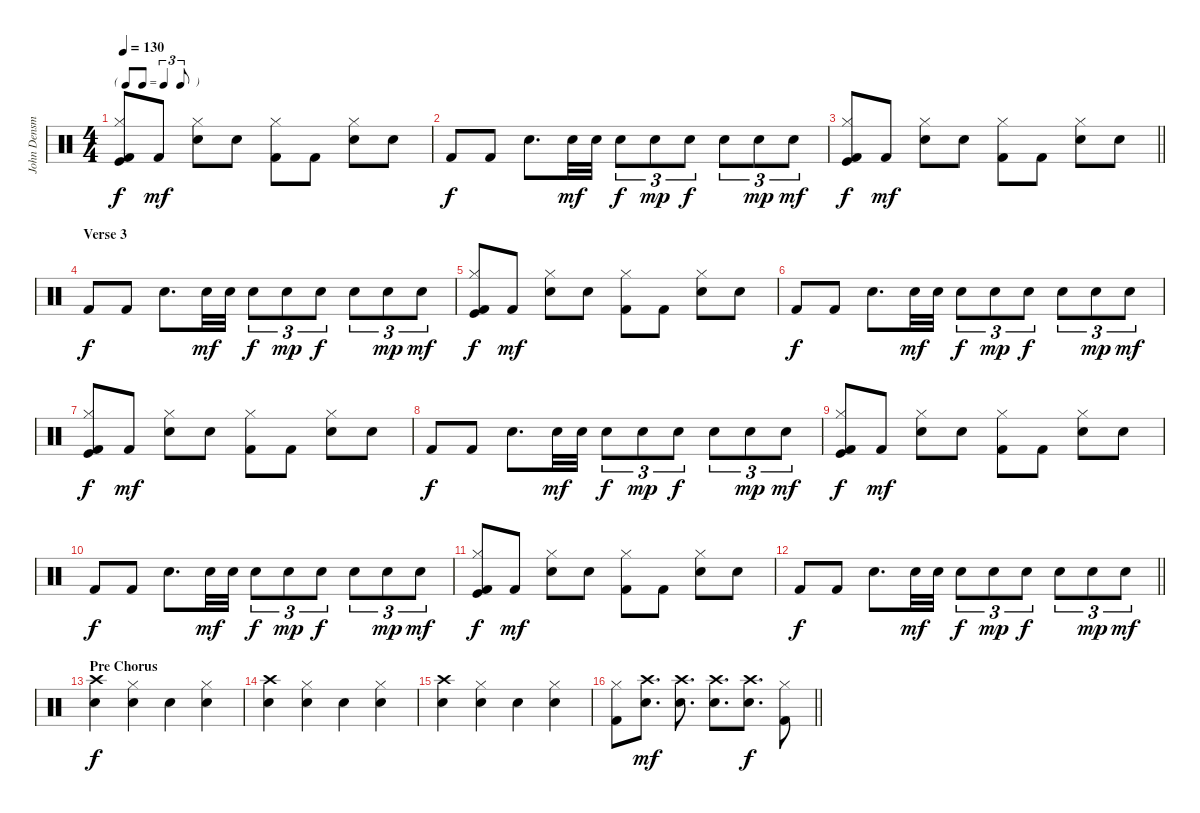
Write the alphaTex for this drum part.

\track ("John Densmore" "John Densm") {instrument percussion}
\staff {score}
\articulation defaults
\ts (4 4)
\tf triplet8th
\tempo 130
\clef neutral
\ks c
("Kick (hit) 2" "Hi-Hat (closed)" "Kick (hit)").8{dy f} "Kick (hit) 2".8{dy mf} ("Electric Snare (hit)" "Hi-Hat (closed)").8 "Electric Snare (hit)".8 ("Kick (hit) 2" "Hi-Hat (closed)").8 "Kick (hit) 2".8 ("Electric Snare (hit)" "Hi-Hat (closed)").8 "Electric Snare (hit)".8 |
"Kick (hit) 2".8{dy f} "Kick (hit) 2".8 "Electric Snare (hit)".8{d} "Snare (hit) 2".32{dy mf} "Electric Snare (hit)".32 "Electric Snare (hit)".8{tu (3 2) dy f} "Electric Snare (hit)".8{tu (3 2) dy mp} "Electric Snare (hit)".8{tu (3 2) dy f} "Snare (hit) 2".8{tu (3 2)} "Snare (hit) 2".8{tu (3 2) dy mp} "Snare (hit) 2".8{tu (3 2) dy mf} |
\barLineRight lightlight
("Kick (hit) 2" "Hi-Hat (closed)" "Kick (hit)").8{dy f} "Kick (hit) 2".8{dy mf} ("Electric Snare (hit)" "Hi-Hat (closed)").8 "Electric Snare (hit)".8 ("Kick (hit) 2" "Hi-Hat (closed)").8 "Kick (hit) 2".8 ("Electric Snare (hit)" "Hi-Hat (closed)").8 "Electric Snare (hit)".8 |
\section ("" "Verse 3")
"Kick (hit) 2".8{dy f} "Kick (hit) 2".8 "Electric Snare (hit)".8{d} "Snare (hit) 2".32{dy mf} "Electric Snare (hit)".32 "Electric Snare (hit)".8{tu (3 2) dy f} "Electric Snare (hit)".8{tu (3 2) dy mp} "Electric Snare (hit)".8{tu (3 2) dy f} "Snare (hit) 2".8{tu (3 2)} "Snare (hit) 2".8{tu (3 2) dy mp} "Snare (hit) 2".8{tu (3 2) dy mf} |
("Kick (hit) 2" "Hi-Hat (closed)" "Kick (hit)").8{dy f} "Kick (hit) 2".8{dy mf} ("Electric Snare (hit)" "Hi-Hat (closed)").8 "Electric Snare (hit)".8 ("Kick (hit) 2" "Hi-Hat (closed)").8 "Kick (hit) 2".8 ("Electric Snare (hit)" "Hi-Hat (closed)").8 "Electric Snare (hit)".8 |
"Kick (hit) 2".8{dy f} "Kick (hit) 2".8 "Electric Snare (hit)".8{d} "Snare (hit) 2".32{dy mf} "Electric Snare (hit)".32 "Electric Snare (hit)".8{tu (3 2) dy f} "Electric Snare (hit)".8{tu (3 2) dy mp} "Electric Snare (hit)".8{tu (3 2) dy f} "Snare (hit) 2".8{tu (3 2)} "Snare (hit) 2".8{tu (3 2) dy mp} "Snare (hit) 2".8{tu (3 2) dy mf} |
("Kick (hit) 2" "Hi-Hat (closed)" "Kick (hit)").8{dy f} "Kick (hit) 2".8{dy mf} ("Electric Snare (hit)" "Hi-Hat (closed)").8 "Electric Snare (hit)".8 ("Kick (hit) 2" "Hi-Hat (closed)").8 "Kick (hit) 2".8 ("Electric Snare (hit)" "Hi-Hat (closed)").8 "Electric Snare (hit)".8 |
"Kick (hit) 2".8{dy f} "Kick (hit) 2".8 "Electric Snare (hit)".8{d} "Snare (hit) 2".32{dy mf} "Electric Snare (hit)".32 "Electric Snare (hit)".8{tu (3 2) dy f} "Electric Snare (hit)".8{tu (3 2) dy mp} "Electric Snare (hit)".8{tu (3 2) dy f} "Snare (hit) 2".8{tu (3 2)} "Snare (hit) 2".8{tu (3 2) dy mp} "Snare (hit) 2".8{tu (3 2) dy mf} |
("Kick (hit) 2" "Hi-Hat (closed)" "Kick (hit)").8{dy f} "Kick (hit) 2".8{dy mf} ("Electric Snare (hit)" "Hi-Hat (closed)").8 "Electric Snare (hit)".8 ("Kick (hit) 2" "Hi-Hat (closed)").8 "Kick (hit) 2".8 ("Electric Snare (hit)" "Hi-Hat (closed)").8 "Electric Snare (hit)".8 |
"Kick (hit) 2".8{dy f} "Kick (hit) 2".8 "Electric Snare (hit)".8{d} "Snare (hit) 2".32{dy mf} "Electric Snare (hit)".32 "Electric Snare (hit)".8{tu (3 2) dy f} "Electric Snare (hit)".8{tu (3 2) dy mp} "Electric Snare (hit)".8{tu (3 2) dy f} "Snare (hit) 2".8{tu (3 2)} "Snare (hit) 2".8{tu (3 2) dy mp} "Snare (hit) 2".8{tu (3 2) dy mf} |
("Kick (hit) 2" "Hi-Hat (closed)" "Kick (hit)").8{dy f} "Kick (hit) 2".8{dy mf} ("Electric Snare (hit)" "Hi-Hat (closed)").8 "Electric Snare (hit)".8 ("Kick (hit) 2" "Hi-Hat (closed)").8 "Kick (hit) 2".8 ("Electric Snare (hit)" "Hi-Hat (closed)").8 "Electric Snare (hit)".8 |
\barLineRight lightlight "Kick (hit) 2".8{dy f} "Kick (hit) 2".8 "Electric Snare (hit)".8{d} "Snare (hit) 2".32{dy mf} "Electric Snare (hit)".32 "Electric Snare (hit)".8{tu (3 2) dy f} "Electric Snare (hit)".8{tu (3 2) dy mp} "Electric Snare (hit)".8{tu (3 2) dy f} "Snare (hit) 2".8{tu (3 2)} "Snare (hit) 2".8{tu (3 2) dy mp} "Snare (hit) 2".8{tu (3 2) dy mf}
|
\section ("" "Pre Chorus")
("Electric Snare (hit)" "Crash high (hit)").4{dy f} ("Snare (hit) 2" "Hi-Hat (closed)").4 "Electric Snare (hit)".4 ("Snare (hit) 2" "Hi-Hat (closed)").4 |
("Electric Snare (hit)" "Crash high (hit)").4 ("Snare (hit) 2" "Hi-Hat (closed)").4 "Electric Snare (hit)".4 ("Snare (hit) 2" "Hi-Hat (closed)").4 |
("Electric Snare (hit)" "Crash high (hit)").4 ("Electric Snare (hit)" "Hi-Hat (closed)").4 "Electric Snare (hit)".4 ("Snare (hit) 2" "Hi-Hat (closed)").4 |
\barLineRight lightlight
("Kick (hit) 2" "Hi-Hat (closed)").8 ("Electric Snare (hit)" "Crash high (hit)").8{d dy mf} ("Electric Snare (hit)" "Crash high (hit)").8{d} ("Electric Snare (hit)" "Crash high (hit)").8{d} ("Electric Snare (hit)" "Crash high (hit)").8{d dy f} ("Kick (hit) 2" "Hi-Hat (closed)").8
